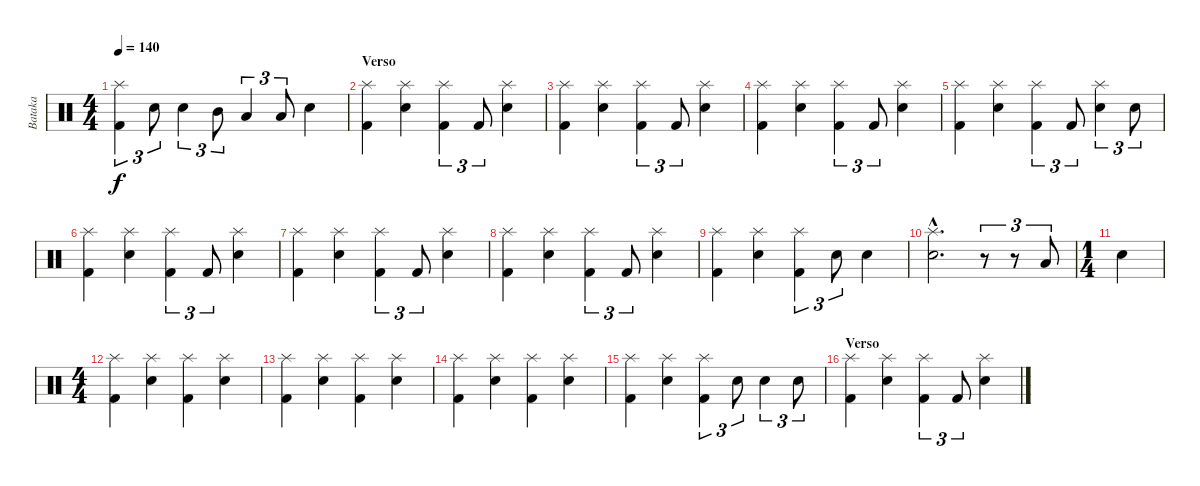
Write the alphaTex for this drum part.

\track ("Bataka" "Bataka") {instrument percussion}
\staff {score}
\articulation defaults
\ts (4 4)
\tempo 140
\clef neutral
\ks c
("Splash (hit)" "Kick (hit) 2").4{tu (3 2) dy f} "Electric Snare (hit)".8{tu (3 2)} "Electric Snare (hit)".4{tu (3 2)} "Mid Tom (hit)".8{tu (3 2)} "Low Tom (hit)".4{tu (3 2)} "Low Tom (hit)".8{tu (3 2)} "Electric Snare (hit)".4 |
\section ("" "Verso")
("Splash (hit)" "Kick (hit) 2").4 ("Splash (hit)" "Electric Snare (hit)").4 ("Splash (hit)" "Kick (hit) 2").4{tu (3 2)} "Kick (hit) 2".8{tu (3 2)} ("Splash (hit)" "Electric Snare (hit)").4 |
("Splash (hit)" "Kick (hit) 2").4 ("Splash (hit)" "Electric Snare (hit)").4 ("Splash (hit)" "Kick (hit) 2").4{tu (3 2)} "Kick (hit) 2".8{tu (3 2)} ("Splash (hit)" "Electric Snare (hit)").4 |
("Splash (hit)" "Kick (hit) 2").4 ("Splash (hit)" "Electric Snare (hit)").4 ("Splash (hit)" "Kick (hit) 2").4{tu (3 2)} "Kick (hit) 2".8{tu (3 2)} ("Splash (hit)" "Electric Snare (hit)").4 |
("Splash (hit)" "Kick (hit) 2").4 ("Splash (hit)" "Electric Snare (hit)").4 ("Splash (hit)" "Kick (hit) 2").4{tu (3 2)} "Kick (hit) 2".8{tu (3 2)} ("Splash (hit)" "Electric Snare (hit)").4{tu (3 2)} "Electric Snare (hit)".8{tu (3 2)} |
("Splash (hit)" "Kick (hit) 2").4 ("Splash (hit)" "Electric Snare (hit)").4 ("Splash (hit)" "Kick (hit) 2").4{tu (3 2)} "Kick (hit) 2".8{tu (3 2)} ("Splash (hit)" "Electric Snare (hit)").4 |
("Splash (hit)" "Kick (hit) 2").4 ("Splash (hit)" "Electric Snare (hit)").4 ("Splash (hit)" "Kick (hit) 2").4{tu (3 2)} "Kick (hit) 2".8{tu (3 2)} ("Splash (hit)" "Electric Snare (hit)").4 |
("Splash (hit)" "Kick (hit) 2").4 ("Splash (hit)" "Electric Snare (hit)").4 ("Splash (hit)" "Kick (hit) 2").4{tu (3 2)} "Kick (hit) 2".8{tu (3 2)} ("Splash (hit)" "Electric Snare (hit)").4 |
("Splash (hit)" "Kick (hit) 2").4 ("Splash (hit)" "Electric Snare (hit)").4 ("Splash (hit)" "Kick (hit) 2").4{tu (3 2)} "Electric Snare (hit)".8{tu (3 2)} "Electric Snare (hit)".4 |
("Splash (hit)"{hac} "Electric Snare (hit)"{hac}).2{d} r.8{tu (3 2)} r.8{tu (3 2)} "Low Tom (hit)".8{tu (3 2)} |
\ts (1 4)
"Electric Snare (hit)".4 |
\ts (4 4)
("Splash (hit)" "Kick (hit) 2").4 ("Splash (hit)" "Electric Snare (hit)").4 ("Splash (hit)" "Kick (hit) 2").4 ("Splash (hit)" "Electric Snare (hit)").4 |
("Splash (hit)" "Kick (hit) 2").4 ("Splash (hit)" "Electric Snare (hit)").4 ("Splash (hit)" "Kick (hit) 2").4 ("Splash (hit)" "Electric Snare (hit)").4 |
("Splash (hit)" "Kick (hit) 2").4 ("Splash (hit)" "Electric Snare (hit)").4 ("Splash (hit)" "Kick (hit) 2").4 ("Splash (hit)" "Electric Snare (hit)").4 |
("Splash (hit)" "Kick (hit) 2").4 ("Splash (hit)" "Electric Snare (hit)").4 ("Splash (hit)" "Kick (hit) 2").4{tu (3 2)} "Electric Snare (hit)".8{tu (3 2)} "Electric Snare (hit)".4{tu (3 2)} "Electric Snare (hit)".8{tu (3 2)} |
\section ("" "Verso")
("Splash (hit)" "Kick (hit) 2").4 ("Splash (hit)" "Electric Snare (hit)").4 ("Splash (hit)" "Kick (hit) 2").4{tu (3 2)} "Kick (hit) 2".8{tu (3 2)} ("Splash (hit)" "Electric Snare (hit)").4
